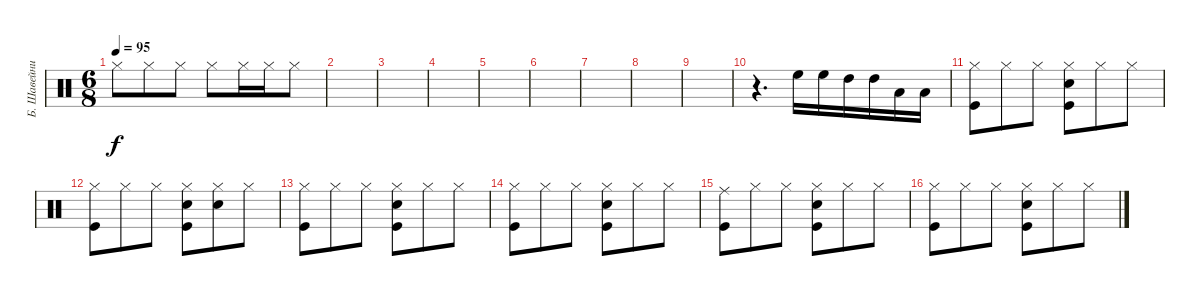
\track ("Б. Шавейников" "Б. Шавейни") {instrument percussion}
\staff {score}
\articulation defaults
\ts (6 8)
\tempo 95
\clef neutral
\ks c "Hi-Hat (closed)".8{dy f} "Hi-Hat (closed)".8 "Hi-Hat (closed)".8 "Hi-Hat (closed)".8 "Hi-Hat (closed)".16 "Hi-Hat (closed)".16 "Hi-Hat (closed)".8
|
|
|
|
|
|
|
|
|
r.4{d} "High Floor Tom (hit)".16 "High Floor Tom (hit)".16 "High Tom (hit)".16 "High Tom (hit)".16 "Low Tom (hit)".16 "Low Tom (hit)".16 |
("Hi-Hat (closed)" "Kick (hit)").8 "Hi-Hat (closed)".8 "Hi-Hat (closed)".8 ("Hi-Hat (closed)" "Snare (hit) 2" "Kick (hit)").8 "Hi-Hat (closed)".8 "Hi-Hat (closed)".8 |
("Hi-Hat (closed)" "Kick (hit)").8 "Hi-Hat (closed)".8 "Hi-Hat (closed)".8 ("Hi-Hat (closed)" "Snare (hit) 2" "Kick (hit)").8 ("Hi-Hat (closed)" "Snare (hit) 2").8 "Hi-Hat (closed)".8 |
("Hi-Hat (closed)" "Kick (hit)").8 "Hi-Hat (closed)".8 "Hi-Hat (closed)".8 ("Hi-Hat (closed)" "Snare (hit) 2" "Kick (hit)").8 "Hi-Hat (closed)".8 "Hi-Hat (closed)".8 |
("Hi-Hat (closed)" "Kick (hit)").8 "Hi-Hat (closed)".8 "Hi-Hat (closed)".8 ("Hi-Hat (closed)" "Snare (hit) 2" "Kick (hit)").8 "Hi-Hat (closed)".8 "Hi-Hat (closed)".8 |
("Ride (middle)" "Kick (hit)").8 "Hi-Hat (closed)".8 "Hi-Hat (closed)".8 ("Hi-Hat (closed)" "Snare (hit) 2" "Kick (hit)").8 "Hi-Hat (closed)".8 "Hi-Hat (closed)".8 |
("Hi-Hat (closed)" "Kick (hit)").8 "Hi-Hat (closed)".8 "Hi-Hat (closed)".8 ("Hi-Hat (closed)" "Snare (hit) 2" "Kick (hit)").8 "Hi-Hat (closed)".8 "Hi-Hat (closed)".8
